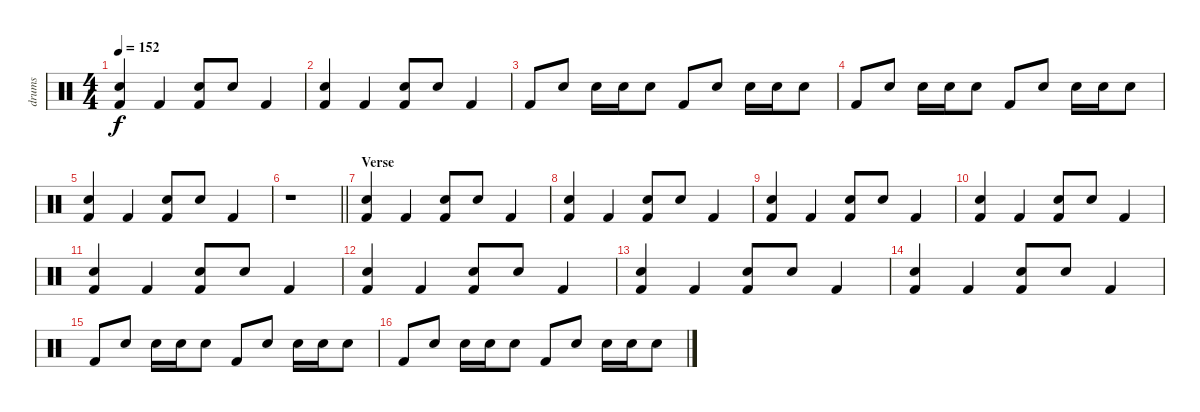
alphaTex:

\track ("drums" "drums") {instrument percussion}
\staff {score}
\articulation defaults
\ts (4 4)
\tempo 152
\clef neutral
\ks c
("Snare (hit) 2" "Kick (hit) 2").4{dy f} "Kick (hit) 2".4 ("Snare (hit) 2" "Kick (hit) 2").8 "Snare (hit) 2".8 "Kick (hit) 2".4 |
("Snare (hit) 2" "Kick (hit) 2").4 "Kick (hit) 2".4 ("Snare (hit) 2" "Kick (hit) 2").8 "Snare (hit) 2".8 "Kick (hit) 2".4 |
"Kick (hit) 2".8 "Snare (hit) 2".8 "Snare (hit) 2".16 "Snare (hit) 2".16 "Snare (hit) 2".8 "Kick (hit) 2".8 "Snare (hit) 2".8 "Snare (hit) 2".16 "Snare (hit) 2".16 "Snare (hit) 2".8 |
"Kick (hit) 2".8 "Snare (hit) 2".8 "Snare (hit) 2".16 "Snare (hit) 2".16 "Snare (hit) 2".8 "Kick (hit) 2".8 "Snare (hit) 2".8 "Snare (hit) 2".16 "Snare (hit) 2".16 "Snare (hit) 2".8 |
("Snare (hit) 2" "Kick (hit) 2").4 "Kick (hit) 2".4 ("Snare (hit) 2" "Kick (hit) 2").8 "Snare (hit) 2".8 "Kick (hit) 2".4 |
\barLineRight lightlight
r.1 |
\section ("" "Verse")
("Snare (hit) 2" "Kick (hit) 2").4 "Kick (hit) 2".4 ("Snare (hit) 2" "Kick (hit) 2").8 "Snare (hit) 2".8 "Kick (hit) 2".4 |
("Snare (hit) 2" "Kick (hit) 2").4 "Kick (hit) 2".4 ("Snare (hit) 2" "Kick (hit) 2").8 "Snare (hit) 2".8 "Kick (hit) 2".4 |
("Snare (hit) 2" "Kick (hit) 2").4 "Kick (hit) 2".4 ("Snare (hit) 2" "Kick (hit) 2").8 "Snare (hit) 2".8 "Kick (hit) 2".4 |
("Snare (hit) 2" "Kick (hit) 2").4 "Kick (hit) 2".4 ("Snare (hit) 2" "Kick (hit) 2").8 "Snare (hit) 2".8 "Kick (hit) 2".4 |
("Snare (hit) 2" "Kick (hit) 2").4 "Kick (hit) 2".4 ("Snare (hit) 2" "Kick (hit) 2").8 "Snare (hit) 2".8 "Kick (hit) 2".4 |
("Snare (hit) 2" "Kick (hit) 2").4 "Kick (hit) 2".4 ("Snare (hit) 2" "Kick (hit) 2").8 "Snare (hit) 2".8 "Kick (hit) 2".4 |
("Snare (hit) 2" "Kick (hit) 2").4 "Kick (hit) 2".4 ("Snare (hit) 2" "Kick (hit) 2").8 "Snare (hit) 2".8 "Kick (hit) 2".4 |
("Snare (hit) 2" "Kick (hit) 2").4 "Kick (hit) 2".4 ("Snare (hit) 2" "Kick (hit) 2").8 "Snare (hit) 2".8 "Kick (hit) 2".4 |
"Kick (hit) 2".8 "Snare (hit) 2".8 "Snare (hit) 2".16 "Snare (hit) 2".16 "Snare (hit) 2".8 "Kick (hit) 2".8 "Snare (hit) 2".8 "Snare (hit) 2".16 "Snare (hit) 2".16 "Snare (hit) 2".8 |
"Kick (hit) 2".8 "Snare (hit) 2".8 "Snare (hit) 2".16 "Snare (hit) 2".16 "Snare (hit) 2".8 "Kick (hit) 2".8 "Snare (hit) 2".8 "Snare (hit) 2".16 "Snare (hit) 2".16 "Snare (hit) 2".8
